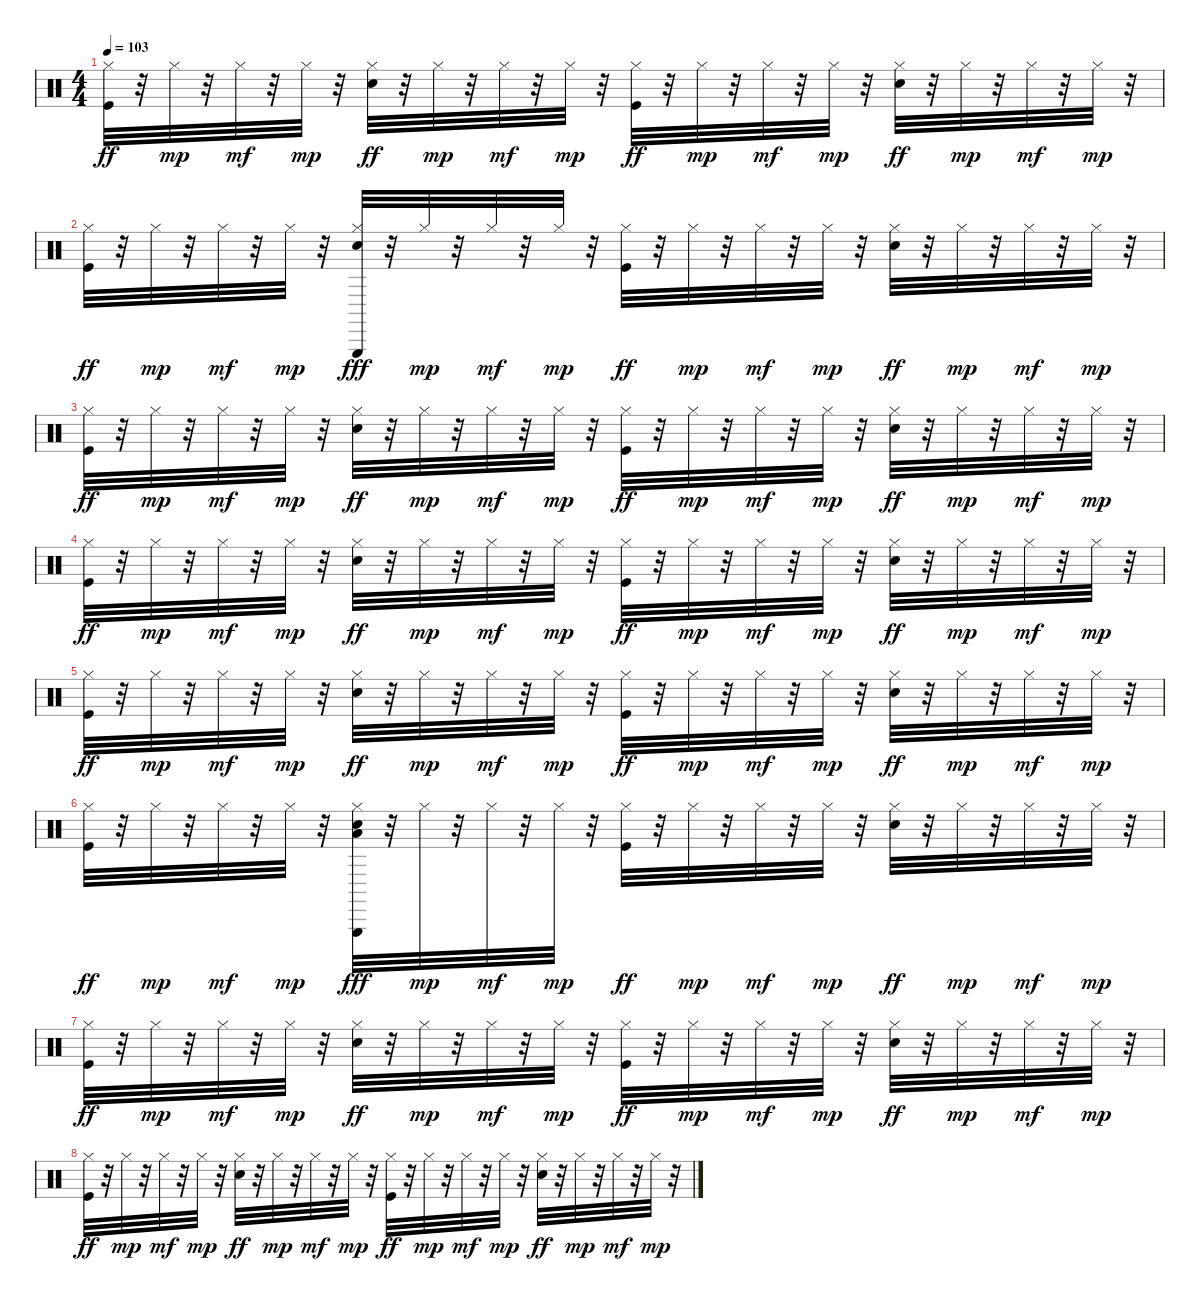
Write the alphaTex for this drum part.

\track "" {instrument percussion}
\staff {score}
\articulation defaults
\ts (4 4)
\tempo 103
\clef neutral
\ks c
("Kick (hit)" "Hi-Hat (closed)").32{dy ff} r.32 "Hi-Hat (closed)".32{dy mp} r.32 "Hi-Hat (closed)".32{dy mf} r.32 "Hi-Hat (closed)".32{dy mp} r.32 ("Snare (hit) 2" "Hi-Hat (closed)").32{dy ff} r.32 "Hi-Hat (closed)".32{dy mp} r.32 "Hi-Hat (closed)".32{dy mf} r.32 "Hi-Hat (closed)".32{dy mp} r.32 ("Kick (hit)" "Hi-Hat (closed)").32{dy ff} r.32 "Hi-Hat (closed)".32{dy mp} r.32 "Hi-Hat (closed)".32{dy mf} r.32 "Hi-Hat (closed)".32{dy mp} r.32 ("Snare (hit) 2" "Hi-Hat (closed)").32{dy ff} r.32 "Hi-Hat (closed)".32{dy mp} r.32 "Hi-Hat (closed)".32{dy mf} r.32 "Hi-Hat (closed)".32{dy mp} r.32 |
("Kick (hit)" "Hi-Hat (closed)").32{dy ff} r.32 "Hi-Hat (closed)".32{dy mp} r.32 "Hi-Hat (closed)".32{dy mf} r.32 "Hi-Hat (closed)".32{dy mp} r.32 ("Snare (hit) 2" "Hi-Hat (closed)" "Triangle (hit)").32{dy fff} r.32 "Hi-Hat (closed)".32{dy mp} r.32 "Hi-Hat (closed)".32{dy mf} r.32 "Hi-Hat (closed)".32{dy mp} r.32 ("Kick (hit)" "Hi-Hat (closed)").32{dy ff} r.32 "Hi-Hat (closed)".32{dy mp} r.32 "Hi-Hat (closed)".32{dy mf} r.32 "Hi-Hat (closed)".32{dy mp} r.32 ("Snare (hit) 2" "Hi-Hat (closed)").32{dy ff} r.32 "Hi-Hat (closed)".32{dy mp} r.32 "Hi-Hat (closed)".32{dy mf} r.32 "Hi-Hat (closed)".32{dy mp} r.32 |
("Kick (hit)" "Hi-Hat (closed)").32{dy ff} r.32 "Hi-Hat (closed)".32{dy mp} r.32 "Hi-Hat (closed)".32{dy mf} r.32 "Hi-Hat (closed)".32{dy mp} r.32 ("Snare (hit) 2" "Hi-Hat (closed)").32{dy ff} r.32 "Hi-Hat (closed)".32{dy mp} r.32 "Hi-Hat (closed)".32{dy mf} r.32 "Hi-Hat (closed)".32{dy mp} r.32 ("Kick (hit)" "Hi-Hat (closed)").32{dy ff} r.32 "Hi-Hat (closed)".32{dy mp} r.32 "Hi-Hat (closed)".32{dy mf} r.32 "Hi-Hat (closed)".32{dy mp} r.32 ("Snare (hit) 2" "Hi-Hat (closed)").32{dy ff} r.32 "Hi-Hat (closed)".32{dy mp} r.32 "Hi-Hat (closed)".32{dy mf} r.32 "Hi-Hat (closed)".32{dy mp} r.32 |
("Kick (hit)" "Hi-Hat (closed)").32{dy ff} r.32 "Hi-Hat (closed)".32{dy mp} r.32 "Hi-Hat (closed)".32{dy mf} r.32 "Hi-Hat (closed)".32{dy mp} r.32 ("Snare (hit) 2" "Hi-Hat (closed)").32{dy ff} r.32 "Hi-Hat (closed)".32{dy mp} r.32 "Hi-Hat (closed)".32{dy mf} r.32 "Hi-Hat (closed)".32{dy mp} r.32 ("Kick (hit)" "Hi-Hat (closed)").32{dy ff} r.32 "Hi-Hat (closed)".32{dy mp} r.32 "Hi-Hat (closed)".32{dy mf} r.32 "Hi-Hat (closed)".32{dy mp} r.32 ("Snare (hit) 2" "Hi-Hat (closed)").32{dy ff} r.32 "Hi-Hat (closed)".32{dy mp} r.32 "Hi-Hat (closed)".32{dy mf} r.32 "Hi-Hat (closed)".32{dy mp} r.32 |
("Kick (hit)" "Hi-Hat (closed)").32{dy ff} r.32 "Hi-Hat (closed)".32{dy mp} r.32 "Hi-Hat (closed)".32{dy mf} r.32 "Hi-Hat (closed)".32{dy mp} r.32 ("Snare (hit) 2" "Hi-Hat (closed)").32{dy ff} r.32 "Hi-Hat (closed)".32{dy mp} r.32 "Hi-Hat (closed)".32{dy mf} r.32 "Hi-Hat (closed)".32{dy mp} r.32 ("Kick (hit)" "Hi-Hat (closed)").32{dy ff} r.32 "Hi-Hat (closed)".32{dy mp} r.32 "Hi-Hat (closed)".32{dy mf} r.32 "Hi-Hat (closed)".32{dy mp} r.32 ("Snare (hit) 2" "Hi-Hat (closed)").32{dy ff} r.32 "Hi-Hat (closed)".32{dy mp} r.32 "Hi-Hat (closed)".32{dy mf} r.32 "Hi-Hat (closed)".32{dy mp} r.32 |
("Kick (hit)" "Hi-Hat (closed)").32{dy ff} r.32 "Hi-Hat (closed)".32{dy mp} r.32 "Hi-Hat (closed)".32{dy mf} r.32 "Hi-Hat (closed)".32{dy mp} r.32 ("Snare (hit) 2" "Hi-Hat (closed)" "Triangle (hit)" "Low Floor Tom (hit)").32{dy fff} r.32 "Hi-Hat (closed)".32{dy mp} r.32 "Hi-Hat (closed)".32{dy mf} r.32 "Hi-Hat (closed)".32{dy mp} r.32 ("Kick (hit)" "Hi-Hat (closed)").32{dy ff} r.32 "Hi-Hat (closed)".32{dy mp} r.32 "Hi-Hat (closed)".32{dy mf} r.32 "Hi-Hat (closed)".32{dy mp} r.32 ("Snare (hit) 2" "Hi-Hat (closed)").32{dy ff} r.32 "Hi-Hat (closed)".32{dy mp} r.32 "Hi-Hat (closed)".32{dy mf} r.32 "Hi-Hat (closed)".32{dy mp} r.32 |
("Kick (hit)" "Hi-Hat (closed)").32{dy ff} r.32 "Hi-Hat (closed)".32{dy mp} r.32 "Hi-Hat (closed)".32{dy mf} r.32 "Hi-Hat (closed)".32{dy mp} r.32 ("Snare (hit) 2" "Hi-Hat (closed)").32{dy ff} r.32 "Hi-Hat (closed)".32{dy mp} r.32 "Hi-Hat (closed)".32{dy mf} r.32 "Hi-Hat (closed)".32{dy mp} r.32 ("Kick (hit)" "Hi-Hat (closed)").32{dy ff} r.32 "Hi-Hat (closed)".32{dy mp} r.32 "Hi-Hat (closed)".32{dy mf} r.32 "Hi-Hat (closed)".32{dy mp} r.32 ("Snare (hit) 2" "Hi-Hat (closed)").32{dy ff} r.32 "Hi-Hat (closed)".32{dy mp} r.32 "Hi-Hat (closed)".32{dy mf} r.32 "Hi-Hat (closed)".32{dy mp} r.32 |
("Kick (hit)" "Hi-Hat (closed)").32{dy ff} r.32 "Hi-Hat (closed)".32{dy mp} r.32 "Hi-Hat (closed)".32{dy mf} r.32 "Hi-Hat (closed)".32{dy mp} r.32 ("Snare (hit) 2" "Hi-Hat (closed)").32{dy ff} r.32 "Hi-Hat (closed)".32{dy mp} r.32 "Hi-Hat (closed)".32{dy mf} r.32 "Hi-Hat (closed)".32{dy mp} r.32 ("Kick (hit)" "Hi-Hat (closed)").32{dy ff} r.32 "Hi-Hat (closed)".32{dy mp} r.32 "Hi-Hat (closed)".32{dy mf} r.32 "Hi-Hat (closed)".32{dy mp} r.32 ("Snare (hit) 2" "Hi-Hat (closed)").32{dy ff} r.32 "Hi-Hat (closed)".32{dy mp} r.32 "Hi-Hat (closed)".32{dy mf} r.32 "Hi-Hat (closed)".32{dy mp} r.32
